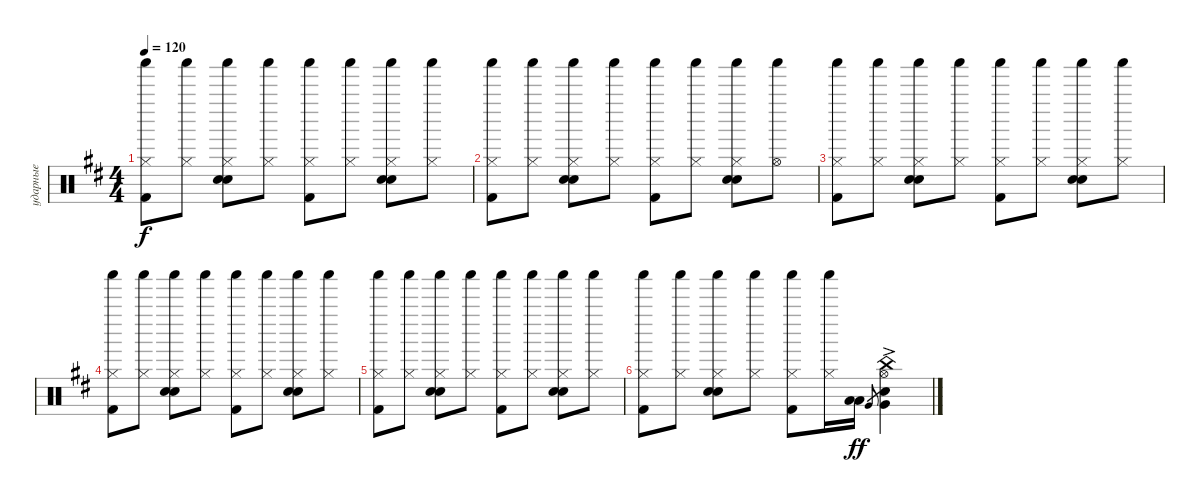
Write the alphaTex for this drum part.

\track ("ударные" "ударные") {instrument percussion}
\staff {score}
\articulation defaults
\ts (4 4)
\tempo 120
\clef neutral
\ks bminor
("Hi-Hat (closed)" "Shaker (hit)" "Kick (hit) 2").8{dy f} ("Hi-Hat (closed)" "Shaker (hit)").8 ("Hi-Hat (closed)" "Shaker (hit)" "Hand Clap (hit)" "Snare (hit) 2").8 ("Hi-Hat (closed)" "Shaker (hit)").8 ("Hi-Hat (closed)" "Shaker (hit)" "Kick (hit) 2").8 ("Hi-Hat (closed)" "Shaker (hit)").8 ("Hi-Hat (closed)" "Shaker (hit)" "Hand Clap (hit)" "Snare (hit) 2").8 ("Hi-Hat (closed)" "Shaker (hit)").8 |
("Hi-Hat (closed)" "Shaker (hit)" "Kick (hit) 2").8 ("Hi-Hat (closed)" "Shaker (hit)").8 ("Hi-Hat (closed)" "Shaker (hit)" "Hand Clap (hit)" "Snare (hit) 2").8 ("Hi-Hat (closed)" "Shaker (hit)").8 ("Hi-Hat (closed)" "Shaker (hit)" "Kick (hit) 2").8 ("Hi-Hat (closed)" "Shaker (hit)").8 ("Hi-Hat (closed)" "Shaker (hit)" "Hand Clap (hit)" "Snare (hit) 2").8 ("Hi-Hat (open)" "Shaker (hit)").8 |
("Hi-Hat (closed)" "Shaker (hit)" "Kick (hit) 2").8 ("Hi-Hat (closed)" "Shaker (hit)").8 ("Hi-Hat (closed)" "Shaker (hit)" "Hand Clap (hit)" "Snare (hit) 2").8 ("Hi-Hat (closed)" "Shaker (hit)").8 ("Hi-Hat (closed)" "Shaker (hit)" "Kick (hit) 2").8 ("Hi-Hat (closed)" "Shaker (hit)").8 ("Hi-Hat (closed)" "Shaker (hit)" "Hand Clap (hit)" "Snare (hit) 2").8 ("Hi-Hat (closed)" "Shaker (hit)").8 |
("Hi-Hat (closed)" "Shaker (hit)" "Kick (hit) 2").8 ("Hi-Hat (closed)" "Shaker (hit)").8 ("Hi-Hat (closed)" "Shaker (hit)" "Hand Clap (hit)" "Snare (hit) 2").8 ("Hi-Hat (closed)" "Shaker (hit)").8 ("Hi-Hat (closed)" "Shaker (hit)" "Kick (hit) 2").8 ("Hi-Hat (closed)" "Shaker (hit)").8 ("Hi-Hat (closed)" "Shaker (hit)" "Hand Clap (hit)" "Snare (hit) 2").8 ("Hi-Hat (closed)" "Shaker (hit)").8 |
("Hi-Hat (closed)" "Shaker (hit)" "Kick (hit) 2").8 ("Hi-Hat (closed)" "Shaker (hit)").8 ("Hi-Hat (closed)" "Shaker (hit)" "Hand Clap (hit)" "Snare (hit) 2").8 ("Hi-Hat (closed)" "Shaker (hit)").8 ("Hi-Hat (closed)" "Shaker (hit)" "Kick (hit) 2").8 ("Hi-Hat (closed)" "Shaker (hit)").8 ("Hi-Hat (closed)" "Shaker (hit)" "Hand Clap (hit)" "Snare (hit) 2").8 ("Hi-Hat (closed)" "Shaker (hit)").8 |
("Hi-Hat (closed)" "Shaker (hit)" "Kick (hit) 2").8 ("Hi-Hat (closed)" "Shaker (hit)").8 ("Hi-Hat (closed)" "Shaker (hit)" "Hand Clap (hit)" "Snare (hit) 2").8 ("Hi-Hat (closed)" "Shaker (hit)").8 ("Hi-Hat (closed)" "Shaker (hit)" "Kick (hit) 2").8 ("Hi-Hat (closed)" "Shaker (hit)").16 ("Low Tom (hit)" "Low Floor Tom (hit)").16{dy ff} "Very Low Tom (hit)".8{gr} ("Very Low Tom (hit)"{ac} "Snare (hit) 2"{ac} "China (hit)"{ac} "Hi-Hat (open)"{ac}).4
